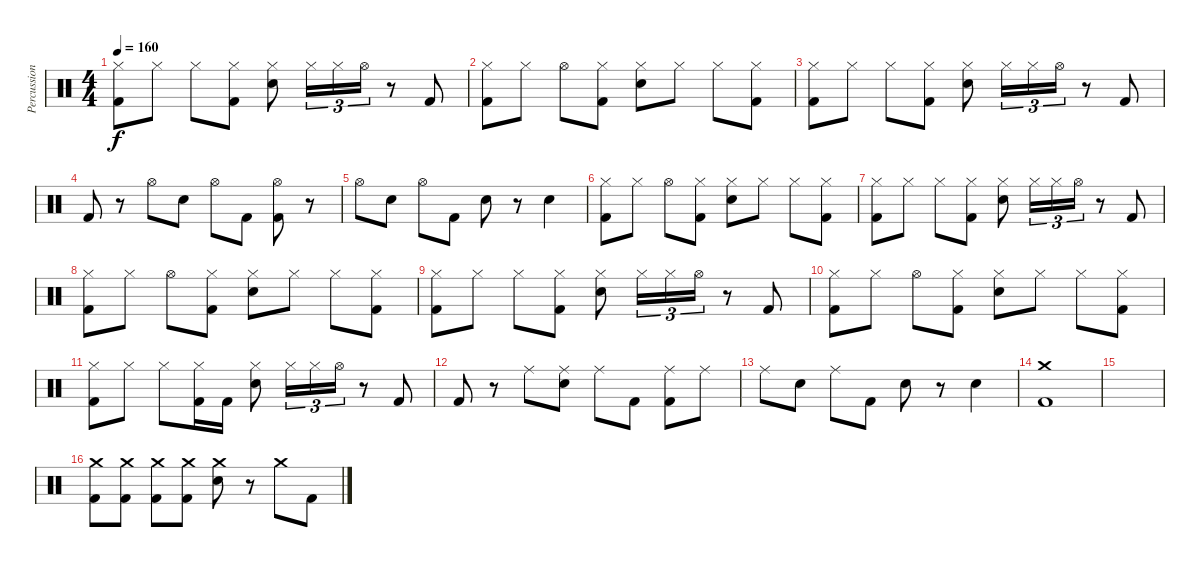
\track ("Percussion" "Percussion") {instrument percussion}
\staff {score}
\articulation defaults
\ts (4 4)
\tempo 160
\clef neutral
\ks c
("Kick (hit) 2" "Hi-Hat (closed)").8{dy f} "Hi-Hat (closed)".8 "Hi-Hat (closed)".8 ("Kick (hit) 2" "Hi-Hat (closed)").8 ("Snare (hit) 2" "Hi-Hat (closed)").8 "Hi-Hat (closed)".16{tu (3 2)} "Hi-Hat (closed)".16{tu (3 2)} "Hi-Hat (open)".16{tu (3 2)} r.8 "Kick (hit) 2".8 |
("Kick (hit) 2" "Hi-Hat (closed)").8 "Hi-Hat (closed)".8 "Hi-Hat (open)".8 ("Kick (hit) 2" "Hi-Hat (closed)").8 ("Snare (hit) 2" "Hi-Hat (closed)").8 "Hi-Hat (closed)".8 "Hi-Hat (closed)".8 ("Kick (hit) 2" "Hi-Hat (closed)").8 |
("Kick (hit) 2" "Hi-Hat (closed)").8 "Hi-Hat (closed)".8 "Hi-Hat (closed)".8 ("Kick (hit) 2" "Hi-Hat (closed)").8 ("Snare (hit) 2" "Hi-Hat (closed)").8 "Hi-Hat (closed)".16{tu (3 2)} "Hi-Hat (closed)".16{tu (3 2)} "Hi-Hat (open)".16{tu (3 2)} r.8 "Kick (hit) 2".8 |
"Kick (hit) 2".8 r.8 "Hi-Hat (open)".8 "Snare (hit) 2".8 "Hi-Hat (open)".8 "Kick (hit) 2".8 ("Kick (hit) 2" "Hi-Hat (open)").8 r.8 |
"Hi-Hat (open)".8 "Snare (hit) 2".8 "Hi-Hat (open)".8 "Kick (hit) 2".8 "Snare (hit) 2".8 r.8 "Snare (hit) 2".4 |
("Kick (hit) 2" "Hi-Hat (closed)").8 "Hi-Hat (closed)".8 "Hi-Hat (open)".8 ("Kick (hit) 2" "Hi-Hat (closed)").8 ("Snare (hit) 2" "Hi-Hat (closed)").8 "Hi-Hat (closed)".8 "Hi-Hat (closed)".8 ("Kick (hit) 2" "Hi-Hat (closed)").8 |
("Kick (hit) 2" "Hi-Hat (closed)").8 "Hi-Hat (closed)".8 "Hi-Hat (closed)".8 ("Kick (hit) 2" "Hi-Hat (closed)").8 ("Snare (hit) 2" "Hi-Hat (closed)").8 "Hi-Hat (closed)".16{tu (3 2)} "Hi-Hat (closed)".16{tu (3 2)} "Hi-Hat (open)".16{tu (3 2)} r.8 "Kick (hit) 2".8 |
("Kick (hit) 2" "Hi-Hat (closed)").8 "Hi-Hat (closed)".8 "Hi-Hat (open)".8 ("Kick (hit) 2" "Hi-Hat (closed)").8 ("Snare (hit) 2" "Hi-Hat (closed)").8 "Hi-Hat (closed)".8 "Hi-Hat (closed)".8 ("Kick (hit) 2" "Hi-Hat (closed)").8 |
("Kick (hit) 2" "Hi-Hat (closed)").8 "Hi-Hat (closed)".8 "Hi-Hat (closed)".8 ("Kick (hit) 2" "Hi-Hat (closed)").8 ("Snare (hit) 2" "Hi-Hat (closed)").8 "Hi-Hat (closed)".16{tu (3 2)} "Hi-Hat (closed)".16{tu (3 2)} "Hi-Hat (open)".16{tu (3 2)} r.8 "Kick (hit) 2".8 |
("Kick (hit) 2" "Hi-Hat (closed)").8 "Hi-Hat (closed)".8 "Hi-Hat (open)".8 ("Kick (hit) 2" "Hi-Hat (closed)").8 ("Snare (hit) 2" "Hi-Hat (closed)").8 "Hi-Hat (closed)".8 "Hi-Hat (closed)".8 ("Kick (hit) 2" "Hi-Hat (closed)").8 |
("Kick (hit) 2" "Hi-Hat (closed)").8 "Hi-Hat (closed)".8 "Hi-Hat (closed)".8 ("Kick (hit) 2" "Hi-Hat (closed)").16 "Kick (hit) 2".16 ("Snare (hit) 2" "Hi-Hat (closed)").8 "Hi-Hat (closed)".16{tu (3 2)} "Hi-Hat (closed)".16{tu (3 2)} "Hi-Hat (open)".16{tu (3 2)} r.8 "Kick (hit) 2".8 |
"Kick (hit) 2".8 r.8 "Ride (middle)".8 ("Snare (hit) 2" "Ride (middle)").8 "Ride (middle)".8 "Kick (hit) 2".8 ("Kick (hit) 2" "Ride (middle)").8 "Ride (middle)".8 |
"Ride (middle)".8 "Snare (hit) 2".8 "Ride (middle)".8 "Kick (hit) 2".8 "Snare (hit) 2".8 r.8 "Snare (hit) 2".4 |
("Kick (hit) 2" "Crash medium (hit)").1 |
|
("Kick (hit) 2" "Crash medium (hit)").8 ("Kick (hit) 2" "Crash medium (hit)").8 ("Kick (hit) 2" "Crash medium (hit)").8 ("Kick (hit) 2" "Crash medium (hit)").8 ("Snare (hit) 2" "Crash medium (hit)").8 r.8 "Crash medium (hit)".8 "Kick (hit) 2".8
